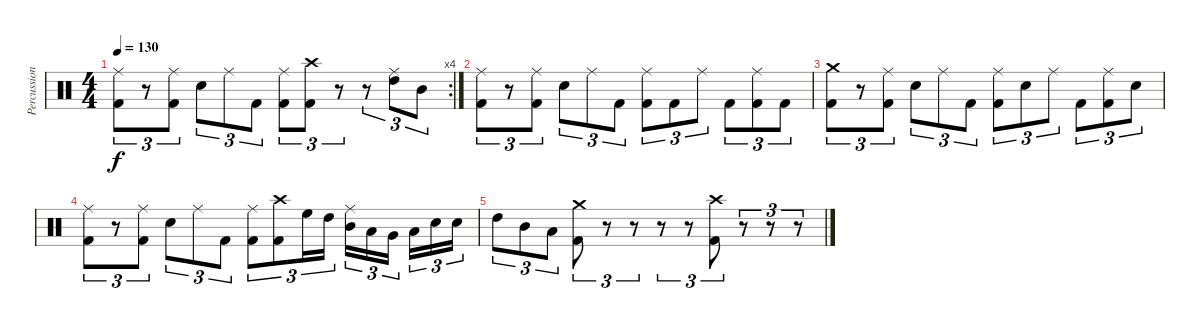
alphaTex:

\track ("Percussion" "Percussion") {instrument percussion}
\staff {score}
\articulation defaults
\rc 4
\ts (4 4)
\tempo 130
\clef neutral
\ks c
("Ride (middle)" "Kick (hit) 2").8{tu (3 2) dy f} r.8{tu (3 2)} ("Ride (middle)" "Kick (hit) 2").8{tu (3 2)} "Electric Snare (hit)".8{tu (3 2)} "Ride (middle)".8{tu (3 2)} "Kick (hit) 2".8{tu (3 2)} ("Ride (middle)" "Kick (hit) 2").8{tu (3 2)} ("Crash high (hit)" "Kick (hit) 2").8{tu (3 2)} r.8{tu (3 2)} r.8{tu (3 2)} ("Ride (middle)" "High Tom (hit)").8{tu (3 2)} "Mid Tom (hit)".8{tu (3 2)} |
("Ride (middle)" "Kick (hit) 2").8{tu (3 2)} r.8{tu (3 2)} ("Ride (middle)" "Kick (hit) 2").8{tu (3 2)} "Electric Snare (hit)".8{tu (3 2)} "Ride (middle)".8{tu (3 2)} "Kick (hit) 2".8{tu (3 2)} ("Ride (middle)" "Kick (hit) 2").8{tu (3 2)} "Kick (hit) 2".8{tu (3 2)} "Ride (middle)".8{tu (3 2)} "Kick (hit) 2".8{tu (3 2)} ("Ride (middle)" "Kick (hit) 2").8{tu (3 2)} "Kick (hit) 2".8{tu (3 2)} |
("Crash medium (hit)" "Kick (hit) 2").8{tu (3 2)} r.8{tu (3 2)} ("Ride (middle)" "Kick (hit) 2").8{tu (3 2)} "Electric Snare (hit)".8{tu (3 2)} "Ride (middle)".8{tu (3 2)} "Kick (hit) 2".8{tu (3 2)} ("Ride (middle)" "Kick (hit) 2").8{tu (3 2)} "Electric Snare (hit)".8{tu (3 2)} "Ride (middle)".8{tu (3 2)} "Kick (hit) 2".8{tu (3 2)} ("Ride (middle)" "Kick (hit) 2").8{tu (3 2)} "Electric Snare (hit)".8{tu (3 2)} |
("Ride (middle)" "Kick (hit) 2").8{tu (3 2)} r.8{tu (3 2)} ("Ride (middle)" "Kick (hit) 2").8{tu (3 2)} "Electric Snare (hit)".8{tu (3 2)} "Ride (middle)".8{tu (3 2)} "Kick (hit) 2".8{tu (3 2)} ("Ride (middle)" "Kick (hit) 2").8{tu (3 2)} ("Crash high (hit)" "Kick (hit) 2").8{tu (3 2)} "High Floor Tom (hit)".16{tu (3 2)} "High Tom (hit)".16{tu (3 2)} ("Ride (middle)" "Mid Tom (hit)").16{tu (3 2)} "Low Tom (hit)".16{tu (3 2)} "Very Low Tom (hit)".16{tu (3 2)} "Low Floor Tom (hit)".16{tu (3 2)} "Electric Snare (hit)".16{tu (3 2)} "Electric Snare (hit)".16{tu (3 2)} |
"High Tom (hit)".8{tu (3 2)} "Mid Tom (hit)".8{tu (3 2)} "Low Tom (hit)".8{tu (3 2)} ("Crash medium (hit)" "Kick (hit) 2").8{tu (3 2)} r.8{tu (3 2)} r.8{tu (3 2)} r.8{tu (3 2)} r.8{tu (3 2)} ("Crash high (hit)" "Kick (hit) 2").8{tu (3 2)} r.8{tu (3 2)} r.8{tu (3 2)} r.8{tu (3 2)}
